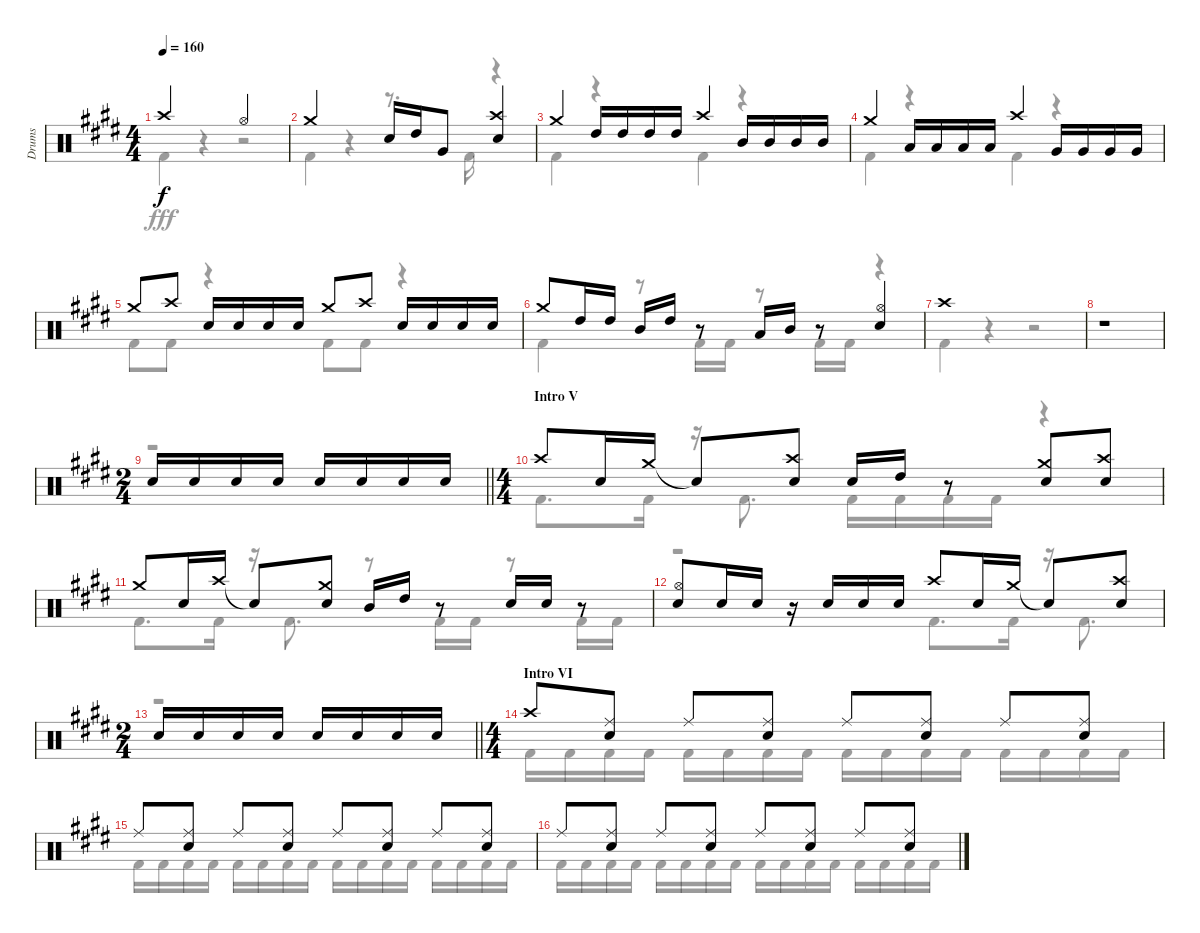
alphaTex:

\track ("Drums" "Drums") {instrument percussion}
\staff {score}
\articulation defaults
\voice
\ts (4 4)
\tempo 160
\clef neutral
\ks e "Crash high (hit)".2{dy f} "Hi-Hat (open)".2
|
"Crash medium (hit)".2 "Snare (hit) 2".16 "High Tom (hit)".16 "Very Low Tom (hit)".8 ("Crash high (hit)" "Snare (hit) 2").4 |
"Crash medium (hit)".4 "High Tom (hit)".16 "High Tom (hit)".16 "High Tom (hit)".16 "High Tom (hit)".16 "Crash high (hit)".4 "Mid Tom (hit)".16 "Mid Tom (hit)".16 "Mid Tom (hit)".16 "Mid Tom (hit)".16 |
"Crash medium (hit)".4 "Low Tom (hit)".16 "Low Tom (hit)".16 "Low Tom (hit)".16 "Low Tom (hit)".16 "Crash high (hit)".4 "Very Low Tom (hit)".16 "Very Low Tom (hit)".16 "Very Low Tom (hit)".16 "Very Low Tom (hit)".16 |
"Crash medium (hit)".8 "Crash high (hit)".8 "Snare (hit) 2".16 "Snare (hit) 2".16 "Snare (hit) 2".16 "Snare (hit) 2".16 "Crash medium (hit)".8 "Crash high (hit)".8 "Snare (hit) 2".16 "Snare (hit) 2".16 "Snare (hit) 2".16 "Snare (hit) 2".16 |
"Crash medium (hit)".8 "High Tom (hit)".16 "High Tom (hit)".16 "Mid Tom (hit)".16 "High Tom (hit)".16 r.8 "Low Tom (hit)".16 "Mid Tom (hit)".16 r.8 ("Hi-Hat (open)" "Snare (hit) 2").4 |
"Crash high (hit)".1 |
r.1 |
\ts (2 4)
\barLineRight lightlight "Snare (hit) 2".16 "Snare (hit) 2".16 "Snare (hit) 2".16 "Snare (hit) 2".16 "Snare (hit) 2".16 "Snare (hit) 2".16 "Snare (hit) 2".16 "Snare (hit) 2".16
|
\ts (4 4)
\section ("" "Intro V")
"Crash high (hit)".8 "Snare (hit) 2".16 "Crash medium (hit)".16 "Snare (hit)"{t}.8 ("Crash high (hit)" "Snare (hit) 2").8 "Snare (hit) 2".16 "High Tom (hit)".16 r.8 ("Crash medium (hit)" "Snare (hit) 2").8 ("Crash high (hit)" "Snare (hit) 2").8 |
"Crash medium (hit)".8 "Snare (hit) 2".16 "Crash high (hit)".16 "Snare (hit)"{t}.8 ("Crash medium (hit)" "Snare (hit) 2").8 "Mid Tom (hit)".16 "High Tom (hit)".16 r.8 "Snare (hit) 2".16 "Snare (hit) 2".16 r.8 |
("Hi-Hat (open)" "Snare (hit) 2").8 "Snare (hit) 2".16 "Snare (hit) 2".16 r.16 "Snare (hit) 2".16 "Snare (hit) 2".16 "Snare (hit) 2".16 "Crash high (hit)".8 "Snare (hit) 2".16 "Crash medium (hit)".16 "Snare (hit)"{t}.8 ("Crash high (hit)" "Snare (hit) 2").8 |
\ts (2 4)
\barLineRight lightlight "Snare (hit) 2".16 "Snare (hit) 2".16 "Snare (hit) 2".16 "Snare (hit) 2".16 "Snare (hit) 2".16 "Snare (hit) 2".16 "Snare (hit) 2".16 "Snare (hit) 2".16
|
\ts (4 4)
\section ("" "Intro VI")
"Crash high (hit)".8 ("Ride (middle)" "Snare (hit) 2").8 "Ride (middle)".8 ("Ride (middle)" "Snare (hit) 2").8 "Ride (middle)".8 ("Ride (middle)" "Snare (hit) 2").8 "Ride (middle)".8 ("Ride (middle)" "Snare (hit) 2").8 |
"Ride (middle)".8 ("Ride (middle)" "Snare (hit) 2").8 "Ride (middle)".8 ("Ride (middle)" "Snare (hit) 2").8 "Ride (middle)".8 ("Ride (middle)" "Snare (hit) 2").8 "Ride (middle)".8 ("Ride (middle)" "Snare (hit) 2").8 |
"Ride (middle)".8 ("Ride (middle)" "Snare (hit) 2").8 "Ride (middle)".8 ("Ride (middle)" "Snare (hit) 2").8 "Ride (middle)".8 ("Ride (middle)" "Snare (hit) 2").8 "Ride (middle)".8 ("Ride (middle)" "Snare (hit) 2").8
\voice
\clef neutral
\ottava regular
\simile none
\ks e "Kick (hit) 2".4{dy fff}
r.4 r.2 |
"Kick (hit) 2".4 r.4 r.8{d} "Kick (hit) 2".16 r.4 |
"Kick (hit) 2".4 r.4 "Kick (hit) 2".4 r.4 |
"Kick (hit) 2".4 r.4 "Kick (hit) 2".4 r.4 |
"Kick (hit) 2".8 "Kick (hit) 2".8 r.4 "Kick (hit) 2".8 "Kick (hit) 2".8 r.4 |
"Kick (hit) 2".4 r.8 "Kick (hit) 2".16 "Kick (hit) 2".16 r.8 "Kick (hit) 2".16 "Kick (hit) 2".16 r.4 |
"Kick (hit) 2".4 r.4 r.2 |
r.1 |
\barLineRight lightlight
r.2 |
"Kick (hit) 2".8{d} "Kick (hit) 2".16 r.16 "Kick (hit) 2".8{d} "Kick (hit) 2".16 "Kick (hit) 2".16 "Kick (hit) 2".16 "Kick (hit) 2".16 r.4 |
"Kick (hit) 2".8{d} "Kick (hit) 2".16 r.16 "Kick (hit) 2".8{d} r.8 "Kick (hit) 2".16 "Kick (hit) 2".16 r.8 "Kick (hit) 2".16 "Kick (hit) 2".16 |
r.2 "Kick (hit) 2".8{d} "Kick (hit) 2".16 r.16 "Kick (hit) 2".8{d} |
\barLineRight lightlight
r.2 |
"Kick (hit) 2".16 "Kick (hit) 2".16 "Kick (hit) 2".16 "Kick (hit) 2".16 "Kick (hit) 2".16 "Kick (hit) 2".16 "Kick (hit) 2".16 "Kick (hit) 2".16 "Kick (hit) 2".16 "Kick (hit) 2".16 "Kick (hit) 2".16 "Kick (hit) 2".16 "Kick (hit) 2".16 "Kick (hit) 2".16 "Kick (hit) 2".16 "Kick (hit) 2".16 |
"Kick (hit) 2".16 "Kick (hit) 2".16 "Kick (hit) 2".16 "Kick (hit) 2".16 "Kick (hit) 2".16 "Kick (hit) 2".16 "Kick (hit) 2".16 "Kick (hit) 2".16 "Kick (hit) 2".16 "Kick (hit) 2".16 "Kick (hit) 2".16 "Kick (hit) 2".16 "Kick (hit) 2".16 "Kick (hit) 2".16 "Kick (hit) 2".16 "Kick (hit) 2".16 |
"Kick (hit) 2".16 "Kick (hit) 2".16 "Kick (hit) 2".16 "Kick (hit) 2".16 "Kick (hit) 2".16 "Kick (hit) 2".16 "Kick (hit) 2".16 "Kick (hit) 2".16 "Kick (hit) 2".16 "Kick (hit) 2".16 "Kick (hit) 2".16 "Kick (hit) 2".16 "Kick (hit) 2".16 "Kick (hit) 2".16 "Kick (hit) 2".16 "Kick (hit) 2".16
